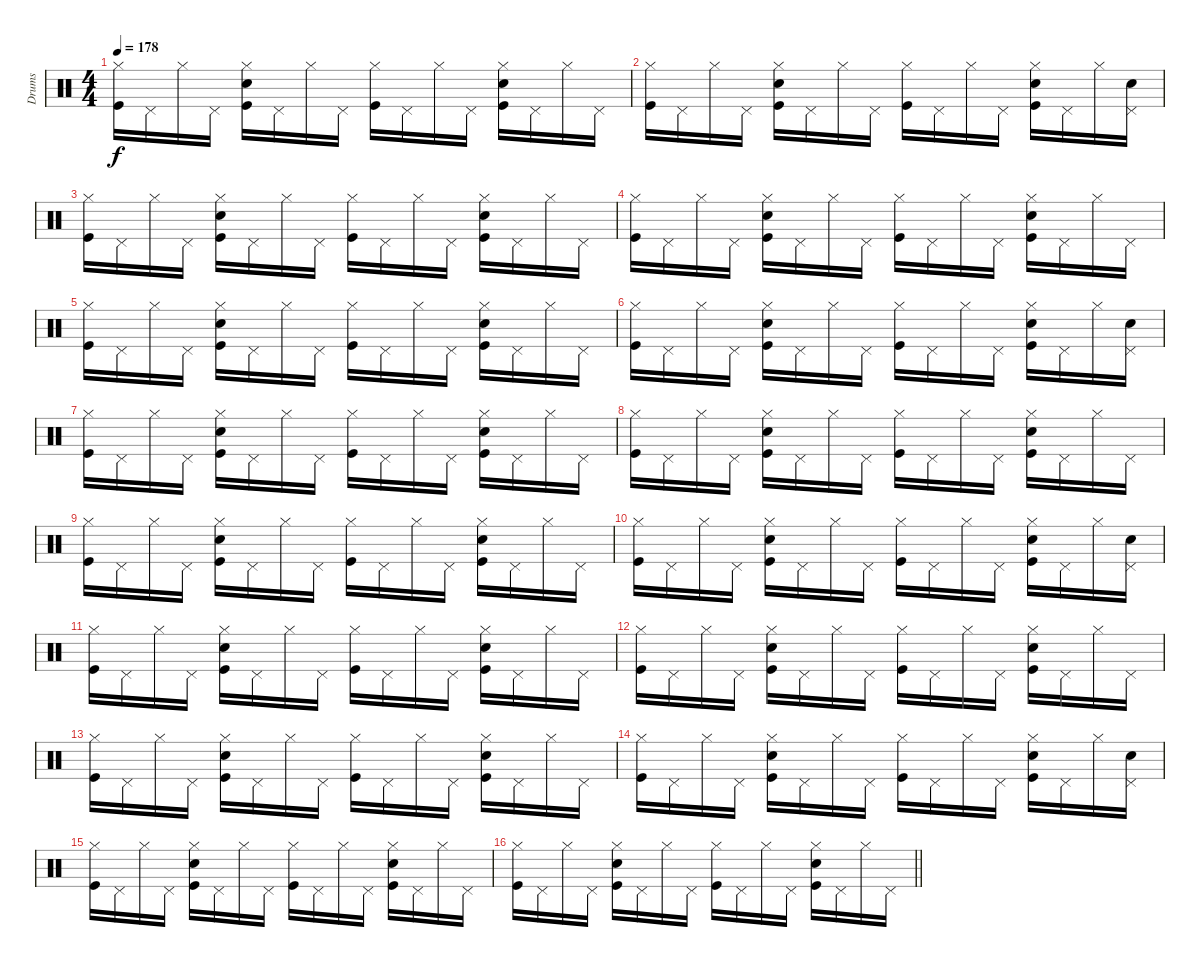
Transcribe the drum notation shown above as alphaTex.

\track ("Drums" "Drums") {instrument percussion}
\staff {score}
\articulation defaults
\ts (4 4)
\tempo 178
\clef neutral
\ks c
("Kick (hit)" "Hi-Hat (closed)").16{dy f} "Pedal Hi-Hat (hit)".16 "Hi-Hat (closed)".16 "Pedal Hi-Hat (hit)".16 ("Kick (hit)" "Electric Snare (hit)" "Hi-Hat (closed)").16 "Pedal Hi-Hat (hit)".16 "Hi-Hat (closed)".16 "Pedal Hi-Hat (hit)".16 ("Kick (hit)" "Hi-Hat (closed)").16 "Pedal Hi-Hat (hit)".16 "Hi-Hat (closed)".16 "Pedal Hi-Hat (hit)".16 ("Kick (hit)" "Electric Snare (hit)" "Hi-Hat (closed)").16 "Pedal Hi-Hat (hit)".16 "Hi-Hat (closed)".16 "Pedal Hi-Hat (hit)".16 |
("Kick (hit)" "Hi-Hat (closed)").16 "Pedal Hi-Hat (hit)".16 "Hi-Hat (closed)".16 "Pedal Hi-Hat (hit)".16 ("Kick (hit)" "Electric Snare (hit)" "Hi-Hat (closed)").16 "Pedal Hi-Hat (hit)".16 "Hi-Hat (closed)".16 "Pedal Hi-Hat (hit)".16 ("Kick (hit)" "Hi-Hat (closed)").16 "Pedal Hi-Hat (hit)".16 "Hi-Hat (closed)".16 "Pedal Hi-Hat (hit)".16 ("Kick (hit)" "Electric Snare (hit)" "Hi-Hat (closed)").16 "Pedal Hi-Hat (hit)".16 "Hi-Hat (closed)".16 ("Electric Snare (hit)" "Pedal Hi-Hat (hit)").16 |
("Kick (hit)" "Hi-Hat (closed)").16 "Pedal Hi-Hat (hit)".16 "Hi-Hat (closed)".16 "Pedal Hi-Hat (hit)".16 ("Kick (hit)" "Electric Snare (hit)" "Hi-Hat (closed)").16 "Pedal Hi-Hat (hit)".16 "Hi-Hat (closed)".16 "Pedal Hi-Hat (hit)".16 ("Kick (hit)" "Hi-Hat (closed)").16 "Pedal Hi-Hat (hit)".16 "Hi-Hat (closed)".16 "Pedal Hi-Hat (hit)".16 ("Kick (hit)" "Electric Snare (hit)" "Hi-Hat (closed)").16 "Pedal Hi-Hat (hit)".16 "Hi-Hat (closed)".16 "Pedal Hi-Hat (hit)".16 |
("Kick (hit)" "Hi-Hat (closed)").16 "Pedal Hi-Hat (hit)".16 "Hi-Hat (closed)".16 "Pedal Hi-Hat (hit)".16 ("Kick (hit)" "Electric Snare (hit)" "Hi-Hat (closed)").16 "Pedal Hi-Hat (hit)".16 "Hi-Hat (closed)".16 "Pedal Hi-Hat (hit)".16 ("Kick (hit)" "Hi-Hat (closed)").16 "Pedal Hi-Hat (hit)".16 "Hi-Hat (closed)".16 "Pedal Hi-Hat (hit)".16 ("Kick (hit)" "Electric Snare (hit)" "Hi-Hat (closed)").16 "Pedal Hi-Hat (hit)".16 "Hi-Hat (closed)".16 "Pedal Hi-Hat (hit)".16 |
("Kick (hit)" "Hi-Hat (closed)").16 "Pedal Hi-Hat (hit)".16 "Hi-Hat (closed)".16 "Pedal Hi-Hat (hit)".16 ("Kick (hit)" "Electric Snare (hit)" "Hi-Hat (closed)").16 "Pedal Hi-Hat (hit)".16 "Hi-Hat (closed)".16 "Pedal Hi-Hat (hit)".16 ("Kick (hit)" "Hi-Hat (closed)").16 "Pedal Hi-Hat (hit)".16 "Hi-Hat (closed)".16 "Pedal Hi-Hat (hit)".16 ("Kick (hit)" "Electric Snare (hit)" "Hi-Hat (closed)").16 "Pedal Hi-Hat (hit)".16 "Hi-Hat (closed)".16 "Pedal Hi-Hat (hit)".16 |
("Kick (hit)" "Hi-Hat (closed)").16 "Pedal Hi-Hat (hit)".16 "Hi-Hat (closed)".16 "Pedal Hi-Hat (hit)".16 ("Kick (hit)" "Electric Snare (hit)" "Hi-Hat (closed)").16 "Pedal Hi-Hat (hit)".16 "Hi-Hat (closed)".16 "Pedal Hi-Hat (hit)".16 ("Kick (hit)" "Hi-Hat (closed)").16 "Pedal Hi-Hat (hit)".16 "Hi-Hat (closed)".16 "Pedal Hi-Hat (hit)".16 ("Kick (hit)" "Electric Snare (hit)" "Hi-Hat (closed)").16 "Pedal Hi-Hat (hit)".16 "Hi-Hat (closed)".16 ("Electric Snare (hit)" "Pedal Hi-Hat (hit)").16 |
("Kick (hit)" "Hi-Hat (closed)").16 "Pedal Hi-Hat (hit)".16 "Hi-Hat (closed)".16 "Pedal Hi-Hat (hit)".16 ("Kick (hit)" "Electric Snare (hit)" "Hi-Hat (closed)").16 "Pedal Hi-Hat (hit)".16 "Hi-Hat (closed)".16 "Pedal Hi-Hat (hit)".16 ("Kick (hit)" "Hi-Hat (closed)").16 "Pedal Hi-Hat (hit)".16 "Hi-Hat (closed)".16 "Pedal Hi-Hat (hit)".16 ("Kick (hit)" "Electric Snare (hit)" "Hi-Hat (closed)").16 "Pedal Hi-Hat (hit)".16 "Hi-Hat (closed)".16 "Pedal Hi-Hat (hit)".16 |
("Kick (hit)" "Hi-Hat (closed)").16 "Pedal Hi-Hat (hit)".16 "Hi-Hat (closed)".16 "Pedal Hi-Hat (hit)".16 ("Kick (hit)" "Electric Snare (hit)" "Hi-Hat (closed)").16 "Pedal Hi-Hat (hit)".16 "Hi-Hat (closed)".16 "Pedal Hi-Hat (hit)".16 ("Kick (hit)" "Hi-Hat (closed)").16 "Pedal Hi-Hat (hit)".16 "Hi-Hat (closed)".16 "Pedal Hi-Hat (hit)".16 ("Kick (hit)" "Electric Snare (hit)" "Hi-Hat (closed)").16 "Pedal Hi-Hat (hit)".16 "Hi-Hat (closed)".16 "Pedal Hi-Hat (hit)".16 |
("Kick (hit)" "Hi-Hat (closed)").16 "Pedal Hi-Hat (hit)".16 "Hi-Hat (closed)".16 "Pedal Hi-Hat (hit)".16 ("Kick (hit)" "Electric Snare (hit)" "Hi-Hat (closed)").16 "Pedal Hi-Hat (hit)".16 "Hi-Hat (closed)".16 "Pedal Hi-Hat (hit)".16 ("Kick (hit)" "Hi-Hat (closed)").16 "Pedal Hi-Hat (hit)".16 "Hi-Hat (closed)".16 "Pedal Hi-Hat (hit)".16 ("Kick (hit)" "Electric Snare (hit)" "Hi-Hat (closed)").16 "Pedal Hi-Hat (hit)".16 "Hi-Hat (closed)".16 "Pedal Hi-Hat (hit)".16 |
("Kick (hit)" "Hi-Hat (closed)").16 "Pedal Hi-Hat (hit)".16 "Hi-Hat (closed)".16 "Pedal Hi-Hat (hit)".16 ("Kick (hit)" "Electric Snare (hit)" "Hi-Hat (closed)").16 "Pedal Hi-Hat (hit)".16 "Hi-Hat (closed)".16 "Pedal Hi-Hat (hit)".16 ("Kick (hit)" "Hi-Hat (closed)").16 "Pedal Hi-Hat (hit)".16 "Hi-Hat (closed)".16 "Pedal Hi-Hat (hit)".16 ("Kick (hit)" "Electric Snare (hit)" "Hi-Hat (closed)").16 "Pedal Hi-Hat (hit)".16 "Hi-Hat (closed)".16 ("Electric Snare (hit)" "Pedal Hi-Hat (hit)").16 |
("Kick (hit)" "Hi-Hat (closed)").16 "Pedal Hi-Hat (hit)".16 "Hi-Hat (closed)".16 "Pedal Hi-Hat (hit)".16 ("Kick (hit)" "Electric Snare (hit)" "Hi-Hat (closed)").16 "Pedal Hi-Hat (hit)".16 "Hi-Hat (closed)".16 "Pedal Hi-Hat (hit)".16 ("Kick (hit)" "Hi-Hat (closed)").16 "Pedal Hi-Hat (hit)".16 "Hi-Hat (closed)".16 "Pedal Hi-Hat (hit)".16 ("Kick (hit)" "Electric Snare (hit)" "Hi-Hat (closed)").16 "Pedal Hi-Hat (hit)".16 "Hi-Hat (closed)".16 "Pedal Hi-Hat (hit)".16 |
("Kick (hit)" "Hi-Hat (closed)").16 "Pedal Hi-Hat (hit)".16 "Hi-Hat (closed)".16 "Pedal Hi-Hat (hit)".16 ("Kick (hit)" "Electric Snare (hit)" "Hi-Hat (closed)").16 "Pedal Hi-Hat (hit)".16 "Hi-Hat (closed)".16 "Pedal Hi-Hat (hit)".16 ("Kick (hit)" "Hi-Hat (closed)").16 "Pedal Hi-Hat (hit)".16 "Hi-Hat (closed)".16 "Pedal Hi-Hat (hit)".16 ("Kick (hit)" "Electric Snare (hit)" "Hi-Hat (closed)").16 "Pedal Hi-Hat (hit)".16 "Hi-Hat (closed)".16 "Pedal Hi-Hat (hit)".16 |
("Kick (hit)" "Hi-Hat (closed)").16 "Pedal Hi-Hat (hit)".16 "Hi-Hat (closed)".16 "Pedal Hi-Hat (hit)".16 ("Kick (hit)" "Electric Snare (hit)" "Hi-Hat (closed)").16 "Pedal Hi-Hat (hit)".16 "Hi-Hat (closed)".16 "Pedal Hi-Hat (hit)".16 ("Kick (hit)" "Hi-Hat (closed)").16 "Pedal Hi-Hat (hit)".16 "Hi-Hat (closed)".16 "Pedal Hi-Hat (hit)".16 ("Kick (hit)" "Electric Snare (hit)" "Hi-Hat (closed)").16 "Pedal Hi-Hat (hit)".16 "Hi-Hat (closed)".16 "Pedal Hi-Hat (hit)".16 |
("Kick (hit)" "Hi-Hat (closed)").16 "Pedal Hi-Hat (hit)".16 "Hi-Hat (closed)".16 "Pedal Hi-Hat (hit)".16 ("Kick (hit)" "Electric Snare (hit)" "Hi-Hat (closed)").16 "Pedal Hi-Hat (hit)".16 "Hi-Hat (closed)".16 "Pedal Hi-Hat (hit)".16 ("Kick (hit)" "Hi-Hat (closed)").16 "Pedal Hi-Hat (hit)".16 "Hi-Hat (closed)".16 "Pedal Hi-Hat (hit)".16 ("Kick (hit)" "Electric Snare (hit)" "Hi-Hat (closed)").16 "Pedal Hi-Hat (hit)".16 "Hi-Hat (closed)".16 ("Electric Snare (hit)" "Pedal Hi-Hat (hit)").16 |
("Kick (hit)" "Hi-Hat (closed)").16 "Pedal Hi-Hat (hit)".16 "Hi-Hat (closed)".16 "Pedal Hi-Hat (hit)".16 ("Kick (hit)" "Electric Snare (hit)" "Hi-Hat (closed)").16 "Pedal Hi-Hat (hit)".16 "Hi-Hat (closed)".16 "Pedal Hi-Hat (hit)".16 ("Kick (hit)" "Hi-Hat (closed)").16 "Pedal Hi-Hat (hit)".16 "Hi-Hat (closed)".16 "Pedal Hi-Hat (hit)".16 ("Kick (hit)" "Electric Snare (hit)" "Hi-Hat (closed)").16 "Pedal Hi-Hat (hit)".16 "Hi-Hat (closed)".16 "Pedal Hi-Hat (hit)".16 |
\barLineRight lightlight
("Kick (hit)" "Hi-Hat (closed)").16 "Pedal Hi-Hat (hit)".16 "Hi-Hat (closed)".16 "Pedal Hi-Hat (hit)".16 ("Kick (hit)" "Electric Snare (hit)" "Hi-Hat (closed)").16 "Pedal Hi-Hat (hit)".16 "Hi-Hat (closed)".16 "Pedal Hi-Hat (hit)".16 ("Kick (hit)" "Hi-Hat (closed)").16 "Pedal Hi-Hat (hit)".16 "Hi-Hat (closed)".16 "Pedal Hi-Hat (hit)".16 ("Kick (hit)" "Electric Snare (hit)" "Hi-Hat (closed)").16 "Pedal Hi-Hat (hit)".16 "Hi-Hat (closed)".16 "Pedal Hi-Hat (hit)".16
